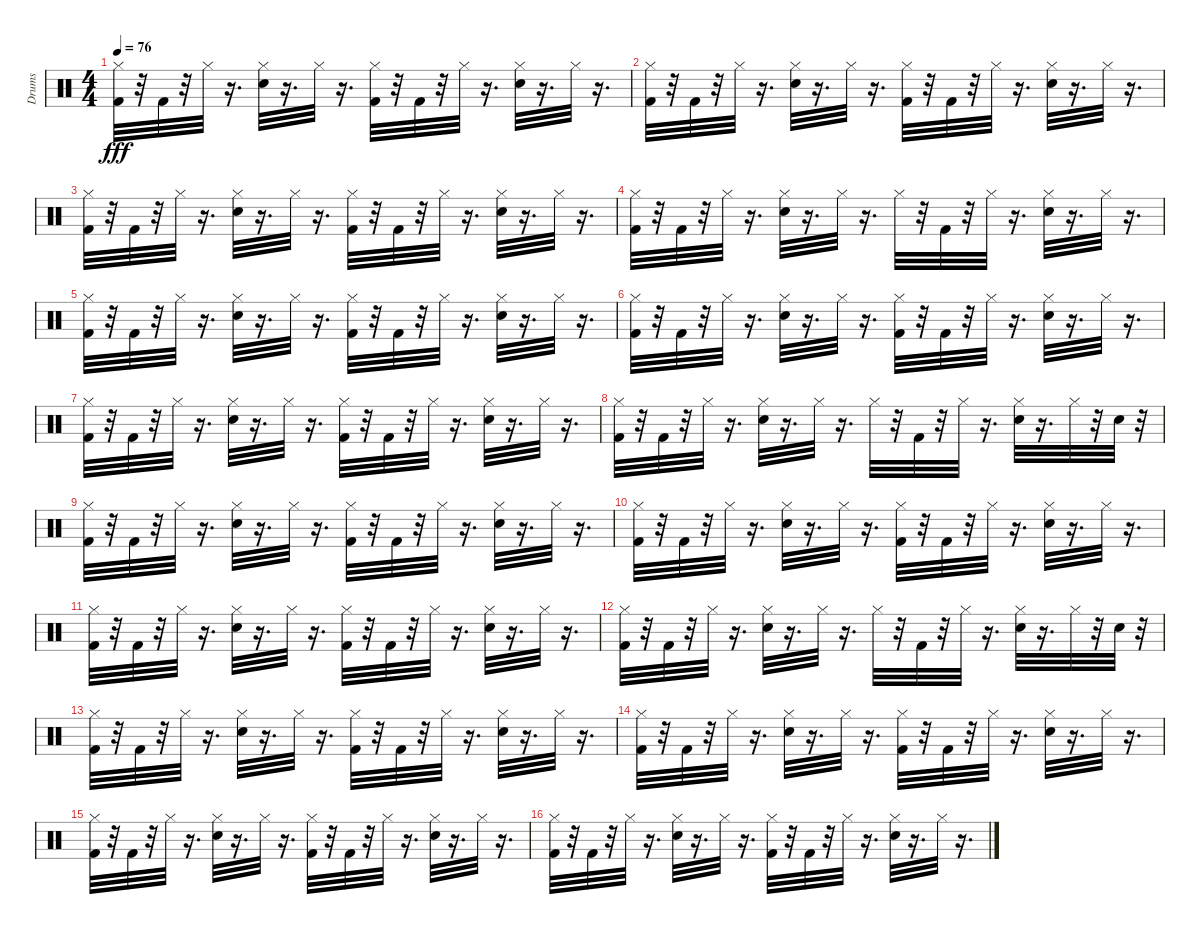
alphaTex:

\track ("Drums" "Drums") {instrument percussion}
\staff {score}
\articulation defaults
\ts (4 4)
\tempo 76
\clef neutral
\ks c
("Hi-Hat (closed)" "Kick (hit) 2").32{dy fff} r.32 "Kick (hit) 2".32 r.32 "Hi-Hat (closed)".32 r.16{d} ("Hi-Hat (closed)" "Electric Snare (hit)").32 r.16{d} "Hi-Hat (closed)".32 r.16{d} ("Hi-Hat (closed)" "Kick (hit) 2").32 r.32 "Kick (hit) 2".32 r.32 "Hi-Hat (closed)".32 r.16{d} ("Hi-Hat (closed)" "Electric Snare (hit)").32 r.16{d} "Hi-Hat (closed)".32 r.16{d} |
("Kick (hit) 2" "Hi-Hat (closed)").32 r.32 "Kick (hit) 2".32 r.32 "Hi-Hat (closed)".32 r.16{d} ("Electric Snare (hit)" "Hi-Hat (closed)").32 r.16{d} "Hi-Hat (closed)".32 r.16{d} ("Kick (hit) 2" "Hi-Hat (closed)").32 r.32 "Kick (hit) 2".32 r.32 "Hi-Hat (closed)".32 r.16{d} ("Electric Snare (hit)" "Hi-Hat (closed)").32 r.16{d} "Hi-Hat (closed)".32 r.16{d} |
("Hi-Hat (closed)" "Kick (hit) 2").32 r.32 "Kick (hit) 2".32 r.32 "Hi-Hat (closed)".32 r.16{d} ("Hi-Hat (closed)" "Electric Snare (hit)").32 r.16{d} "Hi-Hat (closed)".32 r.16{d} ("Hi-Hat (closed)" "Kick (hit) 2").32 r.32 "Kick (hit) 2".32 r.32 "Hi-Hat (closed)".32 r.16{d} ("Hi-Hat (closed)" "Electric Snare (hit)").32 r.16{d} "Hi-Hat (closed)".32 r.16{d} |
("Kick (hit) 2" "Hi-Hat (closed)").32 r.32 "Kick (hit) 2".32 r.32 "Hi-Hat (closed)".32 r.16{d} ("Electric Snare (hit)" "Hi-Hat (closed)").32 r.16{d} "Hi-Hat (closed)".32 r.16{d} "Hi-Hat (closed)".32 r.32 "Kick (hit) 2".32 r.32 "Hi-Hat (closed)".32 r.16{d} ("Electric Snare (hit)" "Hi-Hat (closed)").32 r.16{d} "Hi-Hat (closed)".32 r.16{d} |
("Hi-Hat (closed)" "Kick (hit) 2").32 r.32 "Kick (hit) 2".32 r.32 "Hi-Hat (closed)".32 r.16{d} ("Hi-Hat (closed)" "Electric Snare (hit)").32 r.16{d} "Hi-Hat (closed)".32 r.16{d} ("Hi-Hat (closed)" "Kick (hit) 2").32 r.32 "Kick (hit) 2".32 r.32 "Hi-Hat (closed)".32 r.16{d} ("Hi-Hat (closed)" "Electric Snare (hit)").32 r.16{d} "Hi-Hat (closed)".32 r.16{d} |
("Kick (hit) 2" "Hi-Hat (closed)").32 r.32 "Kick (hit) 2".32 r.32 "Hi-Hat (closed)".32 r.16{d} ("Electric Snare (hit)" "Hi-Hat (closed)").32 r.16{d} "Hi-Hat (closed)".32 r.16{d} ("Kick (hit) 2" "Hi-Hat (closed)").32 r.32 "Kick (hit) 2".32 r.32 "Hi-Hat (closed)".32 r.16{d} ("Electric Snare (hit)" "Hi-Hat (closed)").32 r.16{d} "Hi-Hat (closed)".32 r.16{d} |
("Hi-Hat (closed)" "Kick (hit) 2").32 r.32 "Kick (hit) 2".32 r.32 "Hi-Hat (closed)".32 r.16{d} ("Hi-Hat (closed)" "Electric Snare (hit)").32 r.16{d} "Hi-Hat (closed)".32 r.16{d} ("Hi-Hat (closed)" "Kick (hit) 2").32 r.32 "Kick (hit) 2".32 r.32 "Hi-Hat (closed)".32 r.16{d} ("Hi-Hat (closed)" "Electric Snare (hit)").32 r.16{d} "Hi-Hat (closed)".32 r.16{d} |
("Kick (hit) 2" "Hi-Hat (closed)").32 r.32 "Kick (hit) 2".32 r.32 "Hi-Hat (closed)".32 r.16{d} ("Electric Snare (hit)" "Hi-Hat (closed)").32 r.16{d} "Hi-Hat (closed)".32 r.16{d} "Hi-Hat (closed)".32 r.32 "Kick (hit) 2".32 r.32 "Hi-Hat (closed)".32 r.16{d} ("Electric Snare (hit)" "Hi-Hat (closed)").32 r.16{d} "Hi-Hat (closed)".32 r.32 "Electric Snare (hit)".32 r.32 |
("Hi-Hat (closed)" "Kick (hit) 2").32 r.32 "Kick (hit) 2".32 r.32 "Hi-Hat (closed)".32 r.16{d} ("Hi-Hat (closed)" "Electric Snare (hit)").32 r.16{d} "Hi-Hat (closed)".32 r.16{d} ("Hi-Hat (closed)" "Kick (hit) 2").32 r.32 "Kick (hit) 2".32 r.32 "Hi-Hat (closed)".32 r.16{d} ("Hi-Hat (closed)" "Electric Snare (hit)").32 r.16{d} "Hi-Hat (closed)".32 r.16{d} |
("Kick (hit) 2" "Hi-Hat (closed)").32 r.32 "Kick (hit) 2".32 r.32 "Hi-Hat (closed)".32 r.16{d} ("Electric Snare (hit)" "Hi-Hat (closed)").32 r.16{d} "Hi-Hat (closed)".32 r.16{d} ("Kick (hit) 2" "Hi-Hat (closed)").32 r.32 "Kick (hit) 2".32 r.32 "Hi-Hat (closed)".32 r.16{d} ("Electric Snare (hit)" "Hi-Hat (closed)").32 r.16{d} "Hi-Hat (closed)".32 r.16{d} |
("Hi-Hat (closed)" "Kick (hit) 2").32 r.32 "Kick (hit) 2".32 r.32 "Hi-Hat (closed)".32 r.16{d} ("Hi-Hat (closed)" "Electric Snare (hit)").32 r.16{d} "Hi-Hat (closed)".32 r.16{d} ("Hi-Hat (closed)" "Kick (hit) 2").32 r.32 "Kick (hit) 2".32 r.32 "Hi-Hat (closed)".32 r.16{d} ("Hi-Hat (closed)" "Electric Snare (hit)").32 r.16{d} "Hi-Hat (closed)".32 r.16{d} |
("Kick (hit) 2" "Hi-Hat (closed)").32 r.32 "Kick (hit) 2".32 r.32 "Hi-Hat (closed)".32 r.16{d} ("Electric Snare (hit)" "Hi-Hat (closed)").32 r.16{d} "Hi-Hat (closed)".32 r.16{d} "Hi-Hat (closed)".32 r.32 "Kick (hit) 2".32 r.32 "Hi-Hat (closed)".32 r.16{d} ("Electric Snare (hit)" "Hi-Hat (closed)").32 r.16{d} "Hi-Hat (closed)".32 r.32 "Electric Snare (hit)".32 r.32 |
("Hi-Hat (closed)" "Kick (hit) 2").32 r.32 "Kick (hit) 2".32 r.32 "Hi-Hat (closed)".32 r.16{d} ("Hi-Hat (closed)" "Electric Snare (hit)").32 r.16{d} "Hi-Hat (closed)".32 r.16{d} ("Hi-Hat (closed)" "Kick (hit) 2").32 r.32 "Kick (hit) 2".32 r.32 "Hi-Hat (closed)".32 r.16{d} ("Hi-Hat (closed)" "Electric Snare (hit)").32 r.16{d} "Hi-Hat (closed)".32 r.16{d} |
("Kick (hit) 2" "Hi-Hat (closed)").32 r.32 "Kick (hit) 2".32 r.32 "Hi-Hat (closed)".32 r.16{d} ("Electric Snare (hit)" "Hi-Hat (closed)").32 r.16{d} "Hi-Hat (closed)".32 r.16{d} ("Kick (hit) 2" "Hi-Hat (closed)").32 r.32 "Kick (hit) 2".32 r.32 "Hi-Hat (closed)".32 r.16{d} ("Electric Snare (hit)" "Hi-Hat (closed)").32 r.16{d} "Hi-Hat (closed)".32 r.16{d} |
("Hi-Hat (closed)" "Kick (hit) 2").32 r.32 "Kick (hit) 2".32 r.32 "Hi-Hat (closed)".32 r.16{d} ("Hi-Hat (closed)" "Electric Snare (hit)").32 r.16{d} "Hi-Hat (closed)".32 r.16{d} ("Hi-Hat (closed)" "Kick (hit) 2").32 r.32 "Kick (hit) 2".32 r.32 "Hi-Hat (closed)".32 r.16{d} ("Hi-Hat (closed)" "Electric Snare (hit)").32 r.16{d} "Hi-Hat (closed)".32 r.16{d} |
("Kick (hit) 2" "Hi-Hat (closed)").32 r.32 "Kick (hit) 2".32 r.32 "Hi-Hat (closed)".32 r.16{d} ("Electric Snare (hit)" "Hi-Hat (closed)").32 r.16{d} "Hi-Hat (closed)".32 r.16{d} ("Kick (hit) 2" "Hi-Hat (closed)").32 r.32 "Kick (hit) 2".32 r.32 "Hi-Hat (closed)".32 r.16{d} ("Electric Snare (hit)" "Hi-Hat (closed)").32 r.16{d} "Hi-Hat (closed)".32 r.16{d}
